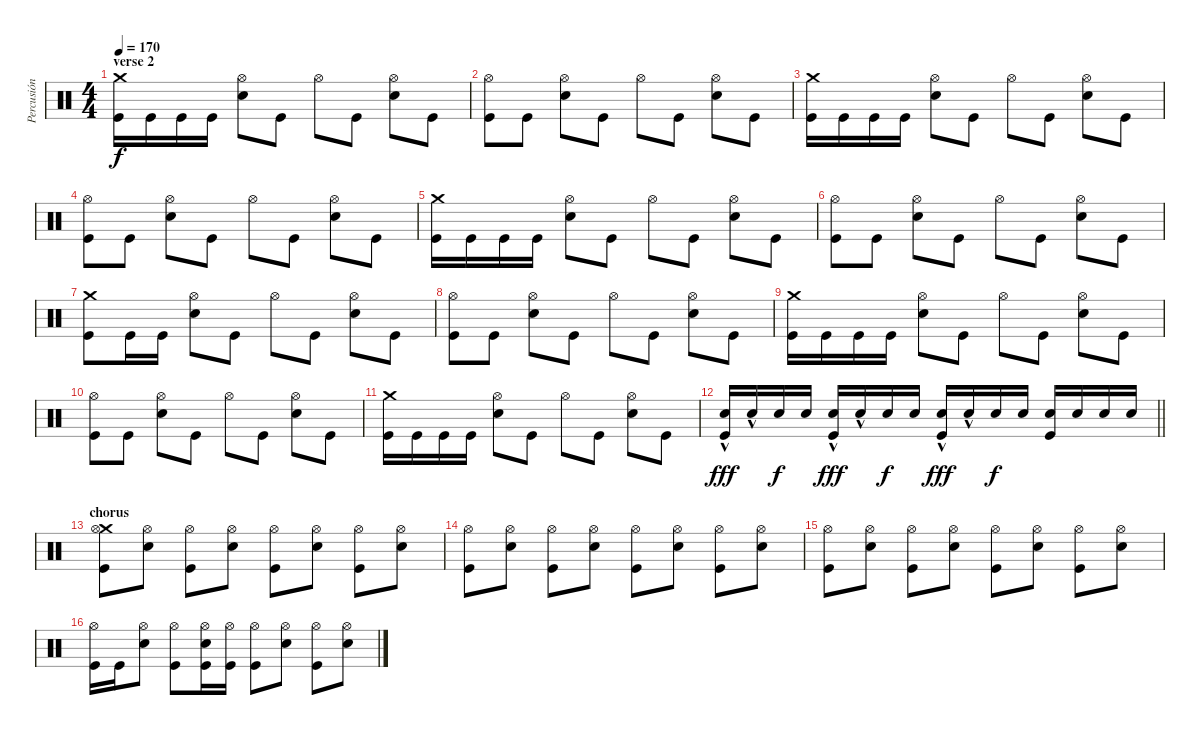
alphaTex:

\track ("Percusión" "Percusión") {instrument percussion}
\staff {score}
\articulation defaults
\ts (4 4)
\section ("" "verse 2")
\tempo 170
\clef neutral
\ks c
("Crash medium (hit)" "Kick (hit)").16{dy f} "Kick (hit)".16 "Kick (hit)".16 "Kick (hit)".16 ("Hi-Hat (open)" "Electric Snare (hit)").8 "Kick (hit)".8 "Hi-Hat (open)".8 "Kick (hit)".8 ("Hi-Hat (open)" "Electric Snare (hit)").8 "Kick (hit)".8 |
("Hi-Hat (open)" "Kick (hit)").8 "Kick (hit)".8 ("Hi-Hat (open)" "Electric Snare (hit)").8 "Kick (hit)".8 "Hi-Hat (open)".8 "Kick (hit)".8 ("Hi-Hat (open)" "Electric Snare (hit)").8 "Kick (hit)".8 |
("Crash medium (hit)" "Kick (hit)").16 "Kick (hit)".16 "Kick (hit)".16 "Kick (hit)".16 ("Hi-Hat (open)" "Electric Snare (hit)").8 "Kick (hit)".8 "Hi-Hat (open)".8 "Kick (hit)".8 ("Hi-Hat (open)" "Electric Snare (hit)").8 "Kick (hit)".8 |
("Hi-Hat (open)" "Kick (hit)").8 "Kick (hit)".8 ("Hi-Hat (open)" "Electric Snare (hit)").8 "Kick (hit)".8 "Hi-Hat (open)".8 "Kick (hit)".8 ("Hi-Hat (open)" "Electric Snare (hit)").8 "Kick (hit)".8 |
("Crash medium (hit)" "Kick (hit)").16 "Kick (hit)".16 "Kick (hit)".16 "Kick (hit)".16 ("Hi-Hat (open)" "Electric Snare (hit)").8 "Kick (hit)".8 "Hi-Hat (open)".8 "Kick (hit)".8 ("Hi-Hat (open)" "Electric Snare (hit)").8 "Kick (hit)".8 |
("Hi-Hat (open)" "Kick (hit)").8 "Kick (hit)".8 ("Hi-Hat (open)" "Electric Snare (hit)").8 "Kick (hit)".8 "Hi-Hat (open)".8 "Kick (hit)".8 ("Hi-Hat (open)" "Electric Snare (hit)").8 "Kick (hit)".8 |
("Crash medium (hit)" "Kick (hit)").8 "Kick (hit)".16 "Kick (hit)".16 ("Hi-Hat (open)" "Electric Snare (hit)").8 "Kick (hit)".8 "Hi-Hat (open)".8 "Kick (hit)".8 ("Hi-Hat (open)" "Electric Snare (hit)").8 "Kick (hit)".8 |
("Hi-Hat (open)" "Kick (hit)").8 "Kick (hit)".8 ("Hi-Hat (open)" "Electric Snare (hit)").8 "Kick (hit)".8 "Hi-Hat (open)".8 "Kick (hit)".8 ("Hi-Hat (open)" "Electric Snare (hit)").8 "Kick (hit)".8 |
("Crash medium (hit)" "Kick (hit)").16 "Kick (hit)".16 "Kick (hit)".16 "Kick (hit)".16 ("Hi-Hat (open)" "Electric Snare (hit)").8 "Kick (hit)".8 "Hi-Hat (open)".8 "Kick (hit)".8 ("Hi-Hat (open)" "Electric Snare (hit)").8 "Kick (hit)".8 |
("Hi-Hat (open)" "Kick (hit)").8 "Kick (hit)".8 ("Hi-Hat (open)" "Electric Snare (hit)").8 "Kick (hit)".8 "Hi-Hat (open)".8 "Kick (hit)".8 ("Hi-Hat (open)" "Electric Snare (hit)").8 "Kick (hit)".8 |
("Crash medium (hit)" "Kick (hit)").16 "Kick (hit)".16 "Kick (hit)".16 "Kick (hit)".16 ("Hi-Hat (open)" "Electric Snare (hit)").8 "Kick (hit)".8 "Hi-Hat (open)".8 "Kick (hit)".8 ("Hi-Hat (open)" "Electric Snare (hit)").8 "Kick (hit)".8 |
\barLineRight lightlight
("Electric Snare (hit)"{hac} "Kick (hit)").16{dy fff} "Electric Snare (hit)"{hac}.16 "Electric Snare (hit)".16{dy f} "Electric Snare (hit)".16 ("Electric Snare (hit)"{hac} "Kick (hit)").16{dy fff} "Electric Snare (hit)"{hac}.16 "Electric Snare (hit)".16{dy f} "Electric Snare (hit)".16 ("Electric Snare (hit)"{hac} "Kick (hit)").16{dy fff} "Electric Snare (hit)"{hac}.16 "Electric Snare (hit)".16{dy f} "Electric Snare (hit)".16 ("Electric Snare (hit)" "Kick (hit)").16 "Electric Snare (hit)".16 "Electric Snare (hit)".16 "Electric Snare (hit)".16 |
\section ("" "chorus")
("Crash medium (hit)" "Hi-Hat (open)" "Kick (hit)").8 ("Hi-Hat (open)" "Electric Snare (hit)").8 ("Hi-Hat (open)" "Kick (hit)").8 ("Hi-Hat (open)" "Electric Snare (hit)").8 ("Hi-Hat (open)" "Kick (hit)").8 ("Hi-Hat (open)" "Electric Snare (hit)").8 ("Hi-Hat (open)" "Kick (hit)").8 ("Hi-Hat (open)" "Electric Snare (hit)").8 |
("Hi-Hat (open)" "Kick (hit)").8 ("Hi-Hat (open)" "Electric Snare (hit)").8 ("Hi-Hat (open)" "Kick (hit)").8 ("Hi-Hat (open)" "Electric Snare (hit)").8 ("Hi-Hat (open)" "Kick (hit)").8 ("Hi-Hat (open)" "Electric Snare (hit)").8 ("Hi-Hat (open)" "Kick (hit)").8 ("Hi-Hat (open)" "Electric Snare (hit)").8 |
("Hi-Hat (open)" "Kick (hit)").8 ("Hi-Hat (open)" "Electric Snare (hit)").8 ("Hi-Hat (open)" "Kick (hit)").8 ("Hi-Hat (open)" "Electric Snare (hit)").8 ("Hi-Hat (open)" "Kick (hit)").8 ("Hi-Hat (open)" "Electric Snare (hit)").8 ("Hi-Hat (open)" "Kick (hit)").8 ("Hi-Hat (open)" "Electric Snare (hit)").8 |
("Hi-Hat (open)" "Kick (hit)").16 "Kick (hit)".16 ("Hi-Hat (open)" "Electric Snare (hit)").8 ("Hi-Hat (open)" "Kick (hit)").8 ("Hi-Hat (open)" "Electric Snare (hit)" "Kick (hit)").16 ("Hi-Hat (open)" "Kick (hit)").16 ("Hi-Hat (open)" "Kick (hit)").8 ("Hi-Hat (open)" "Electric Snare (hit)").8 ("Hi-Hat (open)" "Kick (hit)").8 ("Hi-Hat (open)" "Electric Snare (hit)").8
